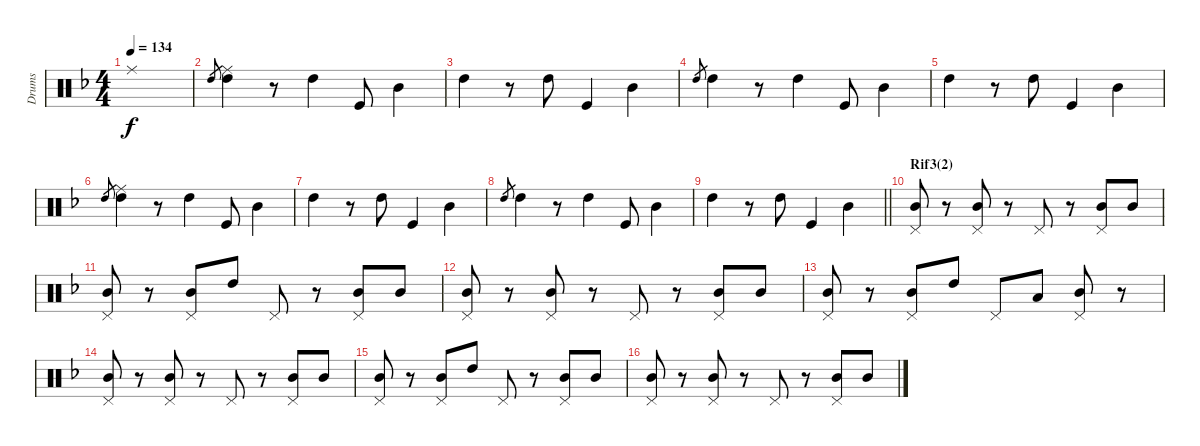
\track ("Drums" "Drums") {instrument percussion}
\staff {score}
\articulation defaults
\ts (4 4)
\tempo 134
\clef neutral
\ks f "Ride (middle)".1{dy f}
|
"High Tom (hit)".8{gr} ("High Tom (hit)" "Ride (middle)").4 r.8 "High Tom (hit)".4 "Kick (hit)".8 "Mid Tom (hit)".4 |
"High Tom (hit)".4 r.8 "High Tom (hit)".8 "Kick (hit)".4 "Mid Tom (hit)".4 |
"High Tom (hit)".8{gr} "High Tom (hit)".4 r.8 "High Tom (hit)".4 "Kick (hit)".8 "Mid Tom (hit)".4 |
"High Tom (hit)".4 r.8 "High Tom (hit)".8 "Kick (hit)".4 "Mid Tom (hit)".4 |
"High Tom (hit)".8{gr} ("High Tom (hit)" "Ride (middle)").4 r.8 "High Tom (hit)".4 "Kick (hit)".8 "Mid Tom (hit)".4 |
"High Tom (hit)".4 r.8 "High Tom (hit)".8 "Kick (hit)".4 "Mid Tom (hit)".4 |
"High Tom (hit)".8{gr} "High Tom (hit)".4 r.8 "High Tom (hit)".4 "Kick (hit)".8 "Mid Tom (hit)".4 |
\barLineRight lightlight "High Tom (hit)".4
r.8 "High Tom (hit)".8 "Kick (hit)".4 "Mid Tom (hit)".4 |
\section ("" "Rif3(2)")
("Mid Tom (hit)" "Pedal Hi-Hat (hit)").8 r.8 ("Mid Tom (hit)" "Pedal Hi-Hat (hit)").8 r.8 "Pedal Hi-Hat (hit)".8 r.8 ("Mid Tom (hit)" "Pedal Hi-Hat (hit)").8 "Mid Tom (hit)".8 |
("Mid Tom (hit)" "Pedal Hi-Hat (hit)").8 r.8 ("Mid Tom (hit)" "Pedal Hi-Hat (hit)").8 "High Tom (hit)".8 "Pedal Hi-Hat (hit)".8 r.8 ("Mid Tom (hit)" "Pedal Hi-Hat (hit)").8 "Mid Tom (hit)".8 |
("Mid Tom (hit)" "Pedal Hi-Hat (hit)").8 r.8 ("Mid Tom (hit)" "Pedal Hi-Hat (hit)").8 r.8 "Pedal Hi-Hat (hit)".8 r.8 ("Mid Tom (hit)" "Pedal Hi-Hat (hit)").8 "Mid Tom (hit)".8 |
("Mid Tom (hit)" "Pedal Hi-Hat (hit)").8 r.8 ("Mid Tom (hit)" "Pedal Hi-Hat (hit)").8 "High Tom (hit)".8 "Pedal Hi-Hat (hit)".8 "Low Tom (hit)".8 ("Mid Tom (hit)" "Pedal Hi-Hat (hit)").8 r.8 |
("Mid Tom (hit)" "Pedal Hi-Hat (hit)").8 r.8 ("Mid Tom (hit)" "Pedal Hi-Hat (hit)").8 r.8 "Pedal Hi-Hat (hit)".8 r.8 ("Mid Tom (hit)" "Pedal Hi-Hat (hit)").8 "Mid Tom (hit)".8 |
("Mid Tom (hit)" "Pedal Hi-Hat (hit)").8 r.8 ("Mid Tom (hit)" "Pedal Hi-Hat (hit)").8 "High Tom (hit)".8 "Pedal Hi-Hat (hit)".8 r.8 ("Mid Tom (hit)" "Pedal Hi-Hat (hit)").8 "Mid Tom (hit)".8 |
("Mid Tom (hit)" "Pedal Hi-Hat (hit)").8 r.8 ("Mid Tom (hit)" "Pedal Hi-Hat (hit)").8 r.8 "Pedal Hi-Hat (hit)".8 r.8 ("Mid Tom (hit)" "Pedal Hi-Hat (hit)").8 "Mid Tom (hit)".8
